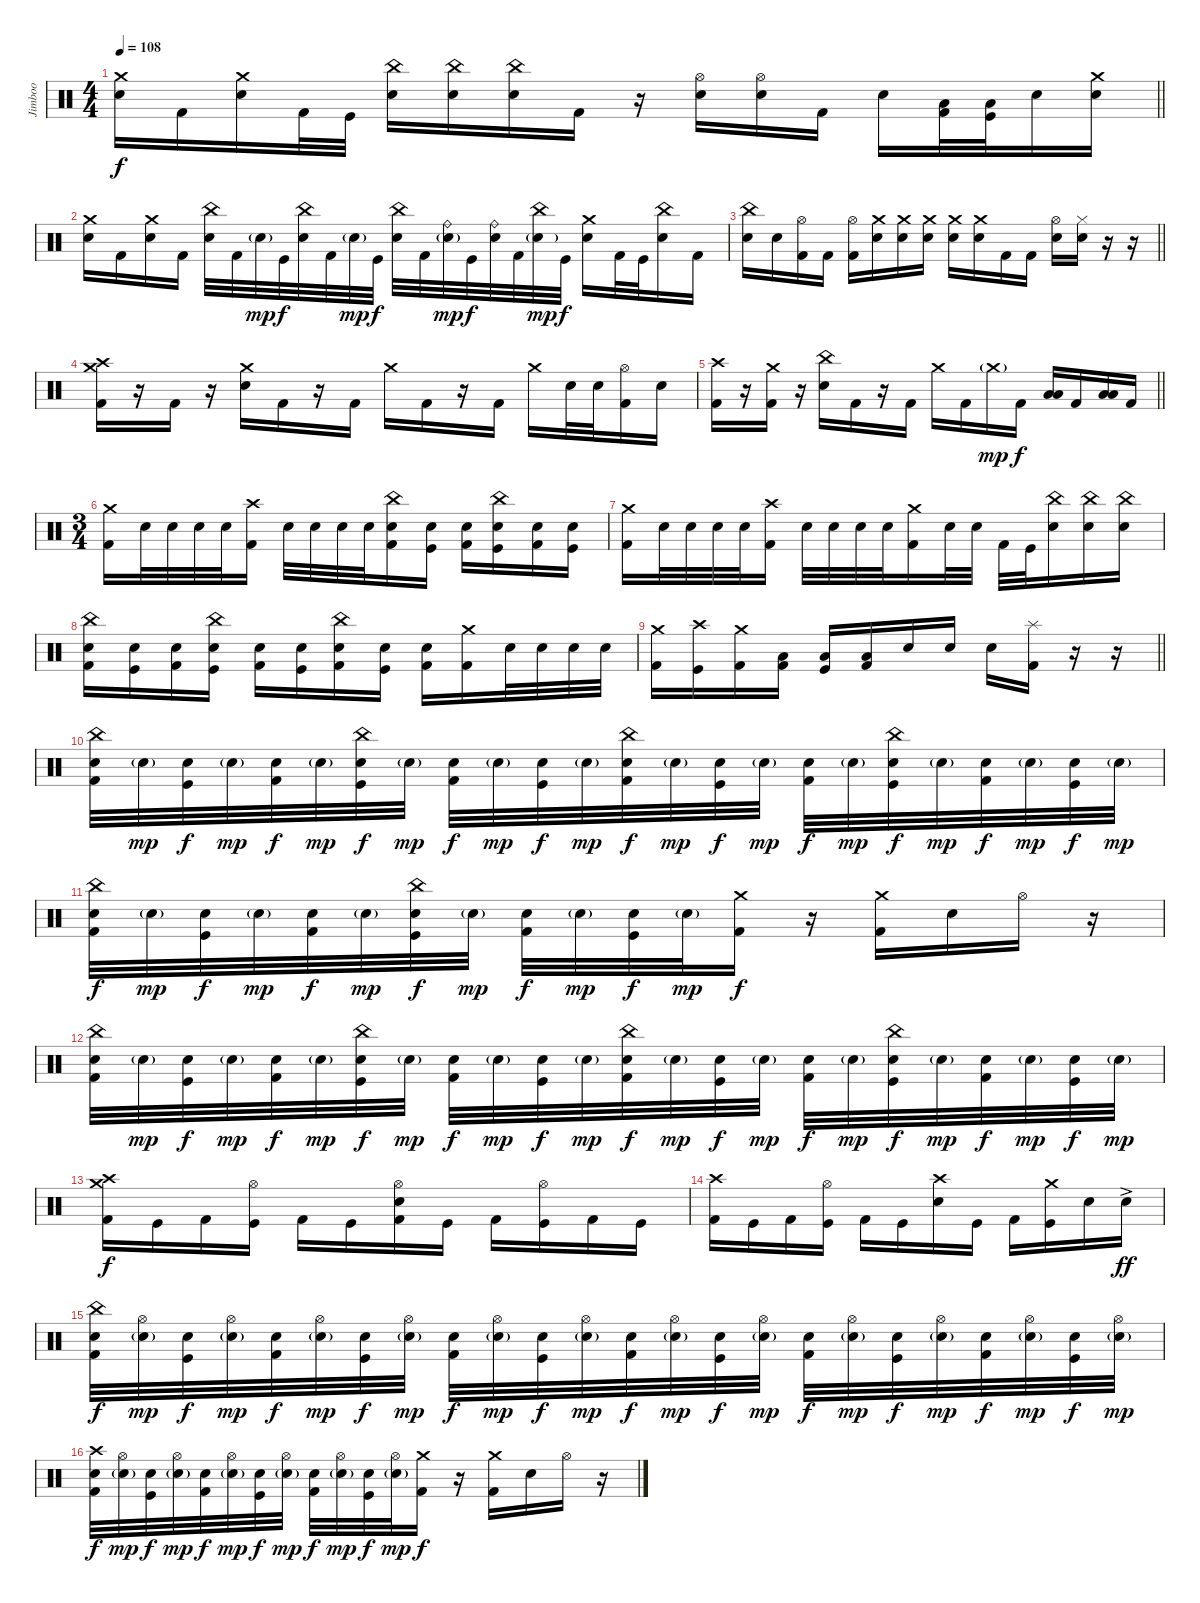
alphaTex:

\track ("Jimboo" "Jimboo") {instrument percussion}
\staff
\articulation defaults
\ts (4 4)
\tempo 108
\clef neutral
\barLineRight lightlight
\ks c
("Electric Snare (hit)" "Crash medium (hit)").16{dy f} "Kick (hit) 2".16 ("Electric Snare (hit)" "Crash medium (hit)").16 "Kick (hit) 2".32 "Kick (hit)".32 ("Electric Snare (hit)" "China (hit)").16 ("Electric Snare (hit)" "China (hit)").16 ("Electric Snare (hit)" "China (hit)").16 "Kick (hit) 2".16 r.16 ("Electric Snare (hit)" "Hi-Hat (open)").16 ("Electric Snare (hit)" "Hi-Hat (open)").16 "Kick (hit) 2".16 "Electric Snare (hit)".16 ("Kick (hit) 2" "Low Tom (hit)").32 ("Kick (hit)" "Low Floor Tom (hit)").32 "Electric Snare (hit)".16 ("Electric Snare (hit)" "Crash medium (hit)").16 |
("Electric Snare (hit)" "Crash medium (hit)").16 "Kick (hit) 2".16 ("Electric Snare (hit)" "Crash medium (hit)").16 "Kick (hit) 2".16 ("Electric Snare (hit)" "China (hit)").32 "Kick (hit) 2".32 "Electric Snare (hit)"{g}.32{dy mp} "Kick (hit)".32{dy f} ("Electric Snare (hit)" "China (hit)").32 "Kick (hit) 2".32 "Electric Snare (hit)"{g}.32{dy mp} "Kick (hit)".32{dy f} ("Electric Snare (hit)" "China (hit)").32 "Kick (hit) 2".32 ("Electric Snare (hit)"{g} "Ride (bell)").32{dy mp} "Kick (hit)".32{dy f} ("Electric Snare (hit)" "Ride (bell)").32 "Kick (hit) 2".32 ("Electric Snare (hit)"{g} "China (hit)").32{dy mp} "Kick (hit)".32{dy f} ("Electric Snare (hit)" "Crash medium (hit)").16 "Kick (hit) 2".32 "Kick (hit)".32 ("Electric Snare (hit)" "China (hit)").16 "Kick (hit) 2".16 |
\barLineRight lightlight
("Electric Snare (hit)" "China (hit)").16 "Electric Snare (hit)".16 ("Kick (hit) 2" "Hi-Hat (open)").16 "Kick (hit) 2".16 ("Kick (hit) 2" "Hi-Hat (open)").16 ("Electric Snare (hit)" "Crash medium (hit)").16 ("Electric Snare (hit)" "Crash medium (hit)").16 ("Electric Snare (hit)" "Crash medium (hit)").16 ("Electric Snare (hit)" "Crash medium (hit)").16 ("Electric Snare (hit)" "Crash medium (hit)").16 "Kick (hit) 2".16 "Kick (hit) 2".16 ("Electric Snare (hit)" "Hi-Hat (open)").16 ("Electric Snare (hit)" "Hi-Hat (closed)").16 r.16 r.16 |
("Kick (hit) 2" "Crash medium (hit)" "Crash high (hit)").16 r.16 "Kick (hit) 2".16 r.16 ("Electric Snare (hit)" "Crash medium (hit)").16 "Kick (hit) 2".16 r.16 "Kick (hit) 2".16 "Crash medium (hit)".16 "Kick (hit) 2".16 r.16 "Kick (hit) 2".16 "Crash medium (hit)".16 "Electric Snare (hit)".32 "Electric Snare (hit)".32 ("Kick (hit) 2" "Hi-Hat (open)").16 "Electric Snare (hit)".16 |
\barLineRight lightlight
("Kick (hit) 2" "Crash high (hit)").16 r.16 ("Kick (hit) 2" "Crash medium (hit)").16 r.16 ("Electric Snare (hit)" "China (hit)").16 "Kick (hit) 2".16 r.16 "Kick (hit) 2".16 "Crash medium (hit)".16 "Kick (hit) 2".16 "Crash medium (hit)"{g}.16{dy mp} "Kick (hit) 2".16{dy f} ("Low Tom (hit)" "Low Tom (hit)").16 "Kick (hit) 2".16 ("Low Floor Tom (hit)" "Low Tom (hit)").16 "Kick (hit) 2".16 |
\ts (3 4)
("Kick (hit) 2" "Crash medium (hit)").16 "Electric Snare (hit)".32 "Electric Snare (hit)".32 "Electric Snare (hit)".32 "Electric Snare (hit)".32 ("Kick (hit) 2" "Crash high (hit)").16 "Electric Snare (hit)".32 "Electric Snare (hit)".32 "Electric Snare (hit)".32 "Electric Snare (hit)".32 ("Electric Snare (hit)" "China (hit)" "Kick (hit) 2").16 ("Electric Snare (hit)" "Kick (hit)").16 ("Electric Snare (hit)" "Kick (hit) 2").16 ("Electric Snare (hit)" "China (hit)" "Kick (hit)").16 ("Electric Snare (hit)" "Kick (hit) 2").16 ("Electric Snare (hit)" "Kick (hit)").16 |
("Kick (hit) 2" "Crash medium (hit)").16 "Electric Snare (hit)".32 "Electric Snare (hit)".32 "Electric Snare (hit)".32 "Electric Snare (hit)".32 ("Kick (hit) 2" "Crash high (hit)").16 "Electric Snare (hit)".32 "Electric Snare (hit)".32 "Electric Snare (hit)".32 "Electric Snare (hit)".32 ("Kick (hit) 2" "Crash medium (hit)").16 "Electric Snare (hit)".32 "Electric Snare (hit)".32 "Kick (hit) 2".32 "Kick (hit)".32 ("Electric Snare (hit)" "China (hit)").16 ("Electric Snare (hit)" "China (hit)").16 ("Electric Snare (hit)" "China (hit)").16 |
("Electric Snare (hit)" "China (hit)" "Kick (hit) 2").16 ("Electric Snare (hit)" "Kick (hit)").16 ("Electric Snare (hit)" "Kick (hit) 2").16 ("Electric Snare (hit)" "China (hit)" "Kick (hit)").16 ("Electric Snare (hit)" "Kick (hit) 2").16 ("Electric Snare (hit)" "Kick (hit)").16 ("Electric Snare (hit)" "China (hit)" "Kick (hit) 2").16 ("Electric Snare (hit)" "Kick (hit)").16 ("Electric Snare (hit)" "Kick (hit) 2").16 ("Kick (hit) 2" "Crash medium (hit)").16 "Electric Snare (hit)".32 "Electric Snare (hit)".32 "Electric Snare (hit)".32 "Electric Snare (hit)".32 |
\barLineRight lightlight
("Kick (hit) 2" "Crash medium (hit)").16 ("Kick (hit)" "Crash high (hit)").16 ("Kick (hit) 2" "Crash medium (hit)").16 ("Low Tom (hit)" "Kick (hit) 2").16 ("Low Tom (hit)" "Kick (hit)").16 ("Low Floor Tom (hit)" "Kick (hit) 2").16 "Electric Snare (hit)".16 "Electric Snare (hit)".16 "Electric Snare (hit)".16 ("Kick (hit) 2" "Splash (hit)").16 r.16 r.16 |
("Electric Snare (hit)" "China (hit)" "Kick (hit) 2").32 "Electric Snare (hit)"{g}.32{dy mp} ("Electric Snare (hit)" "Kick (hit)").32{dy f} "Electric Snare (hit)"{g}.32{dy mp} ("Electric Snare (hit)" "Kick (hit) 2").32{dy f} "Electric Snare (hit)"{g}.32{dy mp} ("Electric Snare (hit)" "China (hit)" "Kick (hit)").32{dy f} "Electric Snare (hit)"{g}.32{dy mp} ("Electric Snare (hit)" "Kick (hit) 2").32{dy f} "Electric Snare (hit)"{g}.32{dy mp} ("Electric Snare (hit)" "Kick (hit)").32{dy f} "Electric Snare (hit)"{g}.32{dy mp} ("Electric Snare (hit)" "China (hit)" "Kick (hit) 2").32{dy f} "Electric Snare (hit)"{g}.32{dy mp} ("Electric Snare (hit)" "Kick (hit)").32{dy f} "Electric Snare (hit)"{g}.32{dy mp} ("Electric Snare (hit)" "Kick (hit) 2").32{dy f} "Electric Snare (hit)"{g}.32{dy mp} ("Electric Snare (hit)" "China (hit)" "Kick (hit)").32{dy f} "Electric Snare (hit)"{g}.32{dy mp} ("Electric Snare (hit)" "Kick (hit) 2").32{dy f} "Electric Snare (hit)"{g}.32{dy mp} ("Electric Snare (hit)" "Kick (hit)").32{dy f} "Electric Snare (hit)"{g}.32{dy mp} |
("Electric Snare (hit)" "China (hit)" "Kick (hit) 2").32{dy f} "Electric Snare (hit)"{g}.32{dy mp} ("Electric Snare (hit)" "Kick (hit)").32{dy f} "Electric Snare (hit)"{g}.32{dy mp} ("Electric Snare (hit)" "Kick (hit) 2").32{dy f} "Electric Snare (hit)"{g}.32{dy mp} ("Electric Snare (hit)" "China (hit)" "Kick (hit)").32{dy f} "Electric Snare (hit)"{g}.32{dy mp} ("Electric Snare (hit)" "Kick (hit) 2").32{dy f} "Electric Snare (hit)"{g}.32{dy mp} ("Electric Snare (hit)" "Kick (hit)").32{dy f} "Electric Snare (hit)"{g}.32{dy mp} ("Kick (hit) 2" "Crash medium (hit)").16{dy f} r.16 ("Kick (hit) 2" "Crash medium (hit)").16 "Electric Snare (hit)".16 "Hi-Hat (open)".16 r.16 |
("Electric Snare (hit)" "China (hit)" "Kick (hit) 2").32 "Electric Snare (hit)"{g}.32{dy mp} ("Electric Snare (hit)" "Kick (hit)").32{dy f} "Electric Snare (hit)"{g}.32{dy mp} ("Electric Snare (hit)" "Kick (hit) 2").32{dy f} "Electric Snare (hit)"{g}.32{dy mp} ("Electric Snare (hit)" "China (hit)" "Kick (hit)").32{dy f} "Electric Snare (hit)"{g}.32{dy mp} ("Electric Snare (hit)" "Kick (hit) 2").32{dy f} "Electric Snare (hit)"{g}.32{dy mp} ("Electric Snare (hit)" "Kick (hit)").32{dy f} "Electric Snare (hit)"{g}.32{dy mp} ("Electric Snare (hit)" "China (hit)" "Kick (hit) 2").32{dy f} "Electric Snare (hit)"{g}.32{dy mp} ("Electric Snare (hit)" "Kick (hit)").32{dy f} "Electric Snare (hit)"{g}.32{dy mp} ("Electric Snare (hit)" "Kick (hit) 2").32{dy f} "Electric Snare (hit)"{g}.32{dy mp} ("Electric Snare (hit)" "China (hit)" "Kick (hit)").32{dy f} "Electric Snare (hit)"{g}.32{dy mp} ("Electric Snare (hit)" "Kick (hit) 2").32{dy f} "Electric Snare (hit)"{g}.32{dy mp} ("Electric Snare (hit)" "Kick (hit)").32{dy f} "Electric Snare (hit)"{g}.32{dy mp} |
("Kick (hit) 2" "Crash medium (hit)" "Crash high (hit)").16{dy f} "Kick (hit)".16 "Kick (hit) 2".16 ("Kick (hit)" "Hi-Hat (open)").16 "Kick (hit) 2".16 "Kick (hit)".16 ("Kick (hit) 2" "Electric Snare (hit)" "Hi-Hat (open)").16 "Kick (hit)".16 "Kick (hit) 2".16 ("Kick (hit)" "Hi-Hat (open)").16 "Kick (hit) 2".16 "Kick (hit)".16 |
("Kick (hit) 2" "Crash high (hit)").16 "Kick (hit)".16 "Kick (hit) 2".16 ("Kick (hit)" "Hi-Hat (open)").16 "Kick (hit) 2".16 "Kick (hit)".16 ("Electric Snare (hit)" "Crash high (hit)").16 "Kick (hit)".16 "Kick (hit) 2".16 ("Kick (hit)" "Crash medium (hit)").16 "Electric Snare (hit)".16 "Electric Snare (hit)"{ac}.16{dy ff} |
("Electric Snare (hit)" "China (hit)" "Kick (hit) 2").32{dy f} ("Electric Snare (hit)"{g} "Hi-Hat (open)").32{dy mp} ("Electric Snare (hit)" "Kick (hit)").32{dy f} ("Electric Snare (hit)"{g} "Hi-Hat (open)").32{dy mp} ("Electric Snare (hit)" "Kick (hit) 2").32{dy f} ("Electric Snare (hit)"{g} "Hi-Hat (open)").32{dy mp} ("Electric Snare (hit)" "Kick (hit)").32{dy f} ("Electric Snare (hit)"{g} "Hi-Hat (open)").32{dy mp} ("Electric Snare (hit)" "Kick (hit) 2").32{dy f} ("Electric Snare (hit)"{g} "Hi-Hat (open)").32{dy mp} ("Electric Snare (hit)" "Kick (hit)").32{dy f} ("Electric Snare (hit)"{g} "Hi-Hat (open)").32{dy mp} ("Electric Snare (hit)" "Kick (hit) 2").32{dy f} ("Electric Snare (hit)"{g} "Hi-Hat (open)").32{dy mp} ("Electric Snare (hit)" "Kick (hit)").32{dy f} ("Electric Snare (hit)"{g} "Hi-Hat (open)").32{dy mp} ("Electric Snare (hit)" "Kick (hit) 2").32{dy f} ("Electric Snare (hit)"{g} "Hi-Hat (open)").32{dy mp} ("Electric Snare (hit)" "Kick (hit)").32{dy f} ("Electric Snare (hit)"{g} "Hi-Hat (open)").32{dy mp} ("Electric Snare (hit)" "Kick (hit) 2").32{dy f} ("Electric Snare (hit)"{g} "Hi-Hat (open)").32{dy mp} ("Electric Snare (hit)" "Kick (hit)").32{dy f} ("Electric Snare (hit)"{g} "Hi-Hat (open)").32{dy mp} |
("Electric Snare (hit)" "Crash high (hit)" "Kick (hit) 2").32{dy f} ("Electric Snare (hit)"{g} "Hi-Hat (open)").32{dy mp} ("Electric Snare (hit)" "Kick (hit)").32{dy f} ("Electric Snare (hit)"{g} "Hi-Hat (open)").32{dy mp} ("Electric Snare (hit)" "Kick (hit) 2").32{dy f} ("Electric Snare (hit)"{g} "Hi-Hat (open)").32{dy mp} ("Electric Snare (hit)" "Kick (hit)").32{dy f} ("Electric Snare (hit)"{g} "Hi-Hat (open)").32{dy mp} ("Electric Snare (hit)" "Kick (hit) 2").32{dy f} ("Electric Snare (hit)"{g} "Hi-Hat (open)").32{dy mp} ("Electric Snare (hit)" "Kick (hit)").32{dy f} ("Electric Snare (hit)"{g} "Hi-Hat (open)").32{dy mp} ("Kick (hit) 2" "Crash medium (hit)").16{dy f} r.16 ("Kick (hit) 2" "Crash medium (hit)").16 "Electric Snare (hit)".16 "Hi-Hat (open)".16 r.16
